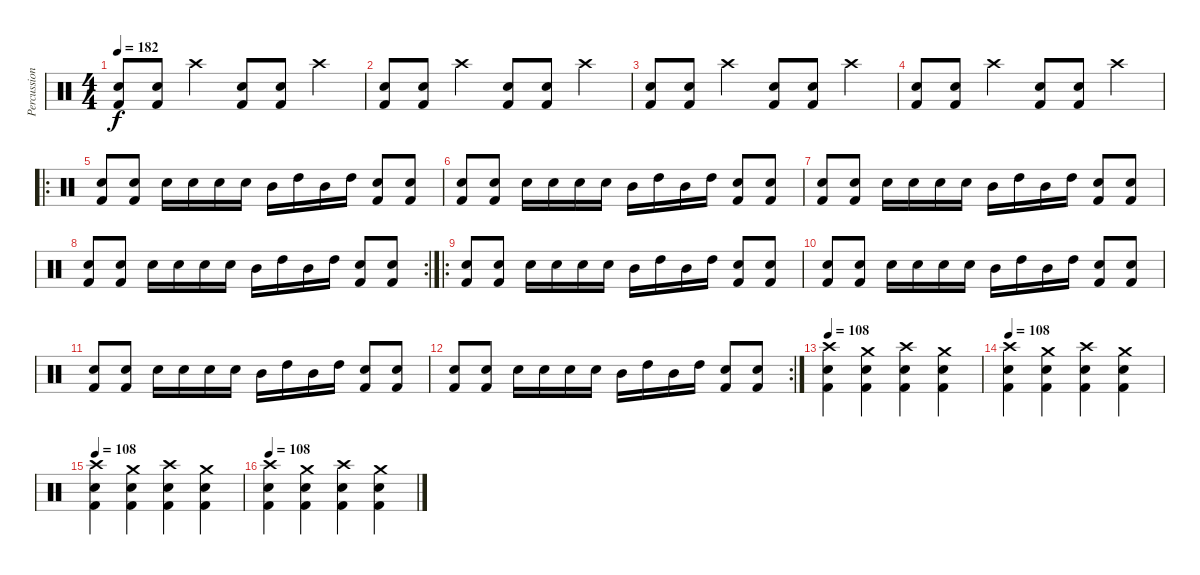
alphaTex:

\track ("Percussion" "Percussion") {instrument percussion}
\staff {score}
\articulation defaults
\ts (4 4)
\tempo 182
\clef neutral
\ks c
("Electric Snare (hit)" "Kick (hit) 2").8{dy f} ("Electric Snare (hit)" "Kick (hit) 2").8 "Crash high (hit)".4 ("Electric Snare (hit)" "Kick (hit) 2").8 ("Electric Snare (hit)" "Kick (hit) 2").8 "Crash high (hit)".4 |
("Electric Snare (hit)" "Kick (hit) 2").8 ("Electric Snare (hit)" "Kick (hit) 2").8 "Crash high (hit)".4 ("Electric Snare (hit)" "Kick (hit) 2").8 ("Electric Snare (hit)" "Kick (hit) 2").8 "Crash high (hit)".4 |
("Electric Snare (hit)" "Kick (hit) 2").8 ("Electric Snare (hit)" "Kick (hit) 2").8 "Crash high (hit)".4 ("Electric Snare (hit)" "Kick (hit) 2").8 ("Electric Snare (hit)" "Kick (hit) 2").8 "Crash high (hit)".4 |
("Electric Snare (hit)" "Kick (hit) 2").8 ("Electric Snare (hit)" "Kick (hit) 2").8 "Crash high (hit)".4 ("Electric Snare (hit)" "Kick (hit) 2").8 ("Electric Snare (hit)" "Kick (hit) 2").8 "Crash high (hit)".4 |
\ro
("Electric Snare (hit)" "Kick (hit) 2").8 ("Electric Snare (hit)" "Kick (hit) 2").8 "Electric Snare (hit)".16 "Electric Snare (hit)".16 "Electric Snare (hit)".16 "Electric Snare (hit)".16 "Mid Tom (hit)".16 "High Tom (hit)".16 "Mid Tom (hit)".16 "High Tom (hit)".16 ("Electric Snare (hit)" "Kick (hit) 2").8 ("Electric Snare (hit)" "Kick (hit) 2").8 |
("Electric Snare (hit)" "Kick (hit) 2").8 ("Electric Snare (hit)" "Kick (hit) 2").8 "Electric Snare (hit)".16 "Electric Snare (hit)".16 "Electric Snare (hit)".16 "Electric Snare (hit)".16 "Mid Tom (hit)".16 "High Tom (hit)".16 "Mid Tom (hit)".16 "High Tom (hit)".16 ("Electric Snare (hit)" "Kick (hit) 2").8 ("Electric Snare (hit)" "Kick (hit) 2").8 |
("Electric Snare (hit)" "Kick (hit) 2").8 ("Electric Snare (hit)" "Kick (hit) 2").8 "Electric Snare (hit)".16 "Electric Snare (hit)".16 "Electric Snare (hit)".16 "Electric Snare (hit)".16 "Mid Tom (hit)".16 "High Tom (hit)".16 "Mid Tom (hit)".16 "High Tom (hit)".16 ("Electric Snare (hit)" "Kick (hit) 2").8 ("Electric Snare (hit)" "Kick (hit) 2").8 |
\rc 2
("Electric Snare (hit)" "Kick (hit) 2").8 ("Electric Snare (hit)" "Kick (hit) 2").8 "Electric Snare (hit)".16 "Electric Snare (hit)".16 "Electric Snare (hit)".16 "Electric Snare (hit)".16 "Mid Tom (hit)".16 "High Tom (hit)".16 "Mid Tom (hit)".16 "High Tom (hit)".16 ("Electric Snare (hit)" "Kick (hit) 2").8 ("Electric Snare (hit)" "Kick (hit) 2").8 |
\ro
("Electric Snare (hit)" "Kick (hit) 2").8 ("Electric Snare (hit)" "Kick (hit) 2").8 "Electric Snare (hit)".16 "Electric Snare (hit)".16 "Electric Snare (hit)".16 "Electric Snare (hit)".16 "Mid Tom (hit)".16 "High Tom (hit)".16 "Mid Tom (hit)".16 "High Tom (hit)".16 ("Electric Snare (hit)" "Kick (hit) 2").8 ("Electric Snare (hit)" "Kick (hit) 2").8 |
("Electric Snare (hit)" "Kick (hit) 2").8 ("Electric Snare (hit)" "Kick (hit) 2").8 "Electric Snare (hit)".16 "Electric Snare (hit)".16 "Electric Snare (hit)".16 "Electric Snare (hit)".16 "Mid Tom (hit)".16 "High Tom (hit)".16 "Mid Tom (hit)".16 "High Tom (hit)".16 ("Electric Snare (hit)" "Kick (hit) 2").8 ("Electric Snare (hit)" "Kick (hit) 2").8 |
("Electric Snare (hit)" "Kick (hit) 2").8 ("Electric Snare (hit)" "Kick (hit) 2").8 "Electric Snare (hit)".16 "Electric Snare (hit)".16 "Electric Snare (hit)".16 "Electric Snare (hit)".16 "Mid Tom (hit)".16 "High Tom (hit)".16 "Mid Tom (hit)".16 "High Tom (hit)".16 ("Electric Snare (hit)" "Kick (hit) 2").8 ("Electric Snare (hit)" "Kick (hit) 2").8 |
\rc 2
("Electric Snare (hit)" "Kick (hit) 2").8 ("Electric Snare (hit)" "Kick (hit) 2").8 "Electric Snare (hit)".16 "Electric Snare (hit)".16 "Electric Snare (hit)".16 "Electric Snare (hit)".16 "Mid Tom (hit)".16 "High Tom (hit)".16 "Mid Tom (hit)".16 "High Tom (hit)".16 ("Electric Snare (hit)" "Kick (hit) 2").8 ("Electric Snare (hit)" "Kick (hit) 2").8 |
\tempo 108
("Electric Snare (hit)" "Crash high (hit)" "Kick (hit) 2").4 ("Electric Snare (hit)" "Crash medium (hit)" "Kick (hit) 2").4 ("Electric Snare (hit)" "Crash high (hit)" "Kick (hit) 2").4 ("Electric Snare (hit)" "Crash medium (hit)" "Kick (hit) 2").4 |
\tempo 108
("Electric Snare (hit)" "Crash high (hit)" "Kick (hit) 2").4 ("Electric Snare (hit)" "Crash medium (hit)" "Kick (hit) 2").4 ("Electric Snare (hit)" "Crash high (hit)" "Kick (hit) 2").4 ("Electric Snare (hit)" "Crash medium (hit)" "Kick (hit) 2").4 |
\tempo 108
("Electric Snare (hit)" "Crash high (hit)" "Kick (hit) 2").4 ("Electric Snare (hit)" "Crash medium (hit)" "Kick (hit) 2").4 ("Electric Snare (hit)" "Crash high (hit)" "Kick (hit) 2").4 ("Electric Snare (hit)" "Crash medium (hit)" "Kick (hit) 2").4 |
\tempo 108
("Electric Snare (hit)" "Crash high (hit)" "Kick (hit) 2").4 ("Electric Snare (hit)" "Crash medium (hit)" "Kick (hit) 2").4 ("Electric Snare (hit)" "Crash high (hit)" "Kick (hit) 2").4 ("Electric Snare (hit)" "Crash medium (hit)" "Kick (hit) 2").4
